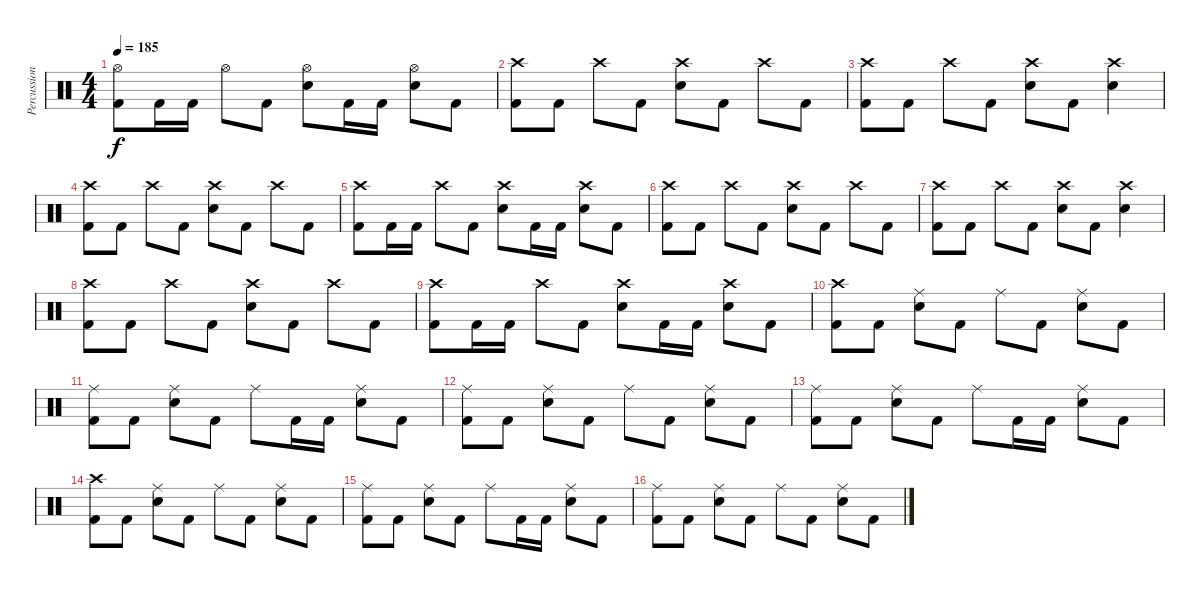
\track ("Percussion" "Percussion") {instrument percussion}
\staff {score}
\articulation defaults
\ts (4 4)
\tempo 185
\clef neutral
\ks c
("Hi-Hat (open)" "Kick (hit) 2").8{dy f} "Kick (hit) 2".16 "Kick (hit) 2".16 "Hi-Hat (open)".8 "Kick (hit) 2".8 ("Hi-Hat (open)" "Electric Snare (hit)").8 "Kick (hit) 2".16 "Kick (hit) 2".16 ("Hi-Hat (open)" "Electric Snare (hit)").8 "Kick (hit) 2".8 |
("Crash high (hit)" "Kick (hit) 2").8 "Kick (hit) 2".8 "Crash high (hit)".8 "Kick (hit) 2".8 ("Crash high (hit)" "Electric Snare (hit)").8 "Kick (hit) 2".8 "Crash high (hit)".8 "Kick (hit) 2".8 |
("Crash high (hit)" "Kick (hit) 2").8 "Kick (hit) 2".8 "Crash high (hit)".8 "Kick (hit) 2".8 ("Crash high (hit)" "Electric Snare (hit)").8 "Kick (hit) 2".8 ("Crash high (hit)" "Electric Snare (hit)").4 |
("Crash high (hit)" "Kick (hit) 2").8 "Kick (hit) 2".8 "Crash high (hit)".8 "Kick (hit) 2".8 ("Crash high (hit)" "Electric Snare (hit)").8 "Kick (hit) 2".8 "Crash high (hit)".8 "Kick (hit) 2".8 |
("Crash high (hit)" "Kick (hit) 2").8 "Kick (hit) 2".16 "Kick (hit) 2".16 "Crash high (hit)".8 "Kick (hit) 2".8 ("Crash high (hit)" "Electric Snare (hit)").8 "Kick (hit) 2".16 "Kick (hit) 2".16 ("Crash high (hit)" "Electric Snare (hit)").8 "Kick (hit) 2".8 |
("Crash high (hit)" "Kick (hit) 2").8 "Kick (hit) 2".8 "Crash high (hit)".8 "Kick (hit) 2".8 ("Crash high (hit)" "Electric Snare (hit)").8 "Kick (hit) 2".8 "Crash high (hit)".8 "Kick (hit) 2".8 |
("Crash high (hit)" "Kick (hit) 2").8 "Kick (hit) 2".8 "Crash high (hit)".8 "Kick (hit) 2".8 ("Crash high (hit)" "Electric Snare (hit)").8 "Kick (hit) 2".8 ("Crash high (hit)" "Electric Snare (hit)").4 |
("Crash high (hit)" "Kick (hit) 2").8 "Kick (hit) 2".8 "Crash high (hit)".8 "Kick (hit) 2".8 ("Crash high (hit)" "Electric Snare (hit)").8 "Kick (hit) 2".8 "Crash high (hit)".8 "Kick (hit) 2".8 |
("Crash high (hit)" "Kick (hit) 2").8 "Kick (hit) 2".16 "Kick (hit) 2".16 "Crash high (hit)".8 "Kick (hit) 2".8 ("Crash high (hit)" "Electric Snare (hit)").8 "Kick (hit) 2".16 "Kick (hit) 2".16 ("Crash high (hit)" "Electric Snare (hit)").8 "Kick (hit) 2".8 |
("Crash high (hit)" "Kick (hit) 2").8 "Kick (hit) 2".8 ("Ride (middle)" "Electric Snare (hit)").8 "Kick (hit) 2".8 "Ride (middle)".8 "Kick (hit) 2".8 ("Ride (middle)" "Electric Snare (hit)").8 "Kick (hit) 2".8 |
("Ride (middle)" "Kick (hit) 2").8 "Kick (hit) 2".8 ("Ride (middle)" "Electric Snare (hit)").8 "Kick (hit) 2".8 "Ride (middle)".8 "Kick (hit) 2".16 "Kick (hit) 2".16 ("Ride (middle)" "Electric Snare (hit)").8 "Kick (hit) 2".8 |
("Ride (middle)" "Kick (hit) 2").8 "Kick (hit) 2".8 ("Ride (middle)" "Electric Snare (hit)").8 "Kick (hit) 2".8 "Ride (middle)".8 "Kick (hit) 2".8 ("Ride (middle)" "Electric Snare (hit)").8 "Kick (hit) 2".8 |
("Ride (middle)" "Kick (hit) 2").8 "Kick (hit) 2".8 ("Ride (middle)" "Electric Snare (hit)").8 "Kick (hit) 2".8 "Ride (middle)".8 "Kick (hit) 2".16 "Kick (hit) 2".16 ("Ride (middle)" "Electric Snare (hit)").8 "Kick (hit) 2".8 |
("Crash high (hit)" "Kick (hit) 2").8 "Kick (hit) 2".8 ("Ride (middle)" "Electric Snare (hit)").8 "Kick (hit) 2".8 "Ride (middle)".8 "Kick (hit) 2".8 ("Ride (middle)" "Electric Snare (hit)").8 "Kick (hit) 2".8 |
("Ride (middle)" "Kick (hit) 2").8 "Kick (hit) 2".8 ("Ride (middle)" "Electric Snare (hit)").8 "Kick (hit) 2".8 "Ride (middle)".8 "Kick (hit) 2".16 "Kick (hit) 2".16 ("Ride (middle)" "Electric Snare (hit)").8 "Kick (hit) 2".8 |
("Ride (middle)" "Kick (hit) 2").8 "Kick (hit) 2".8 ("Ride (middle)" "Electric Snare (hit)").8 "Kick (hit) 2".8 "Ride (middle)".8 "Kick (hit) 2".8 ("Ride (middle)" "Electric Snare (hit)").8 "Kick (hit) 2".8
